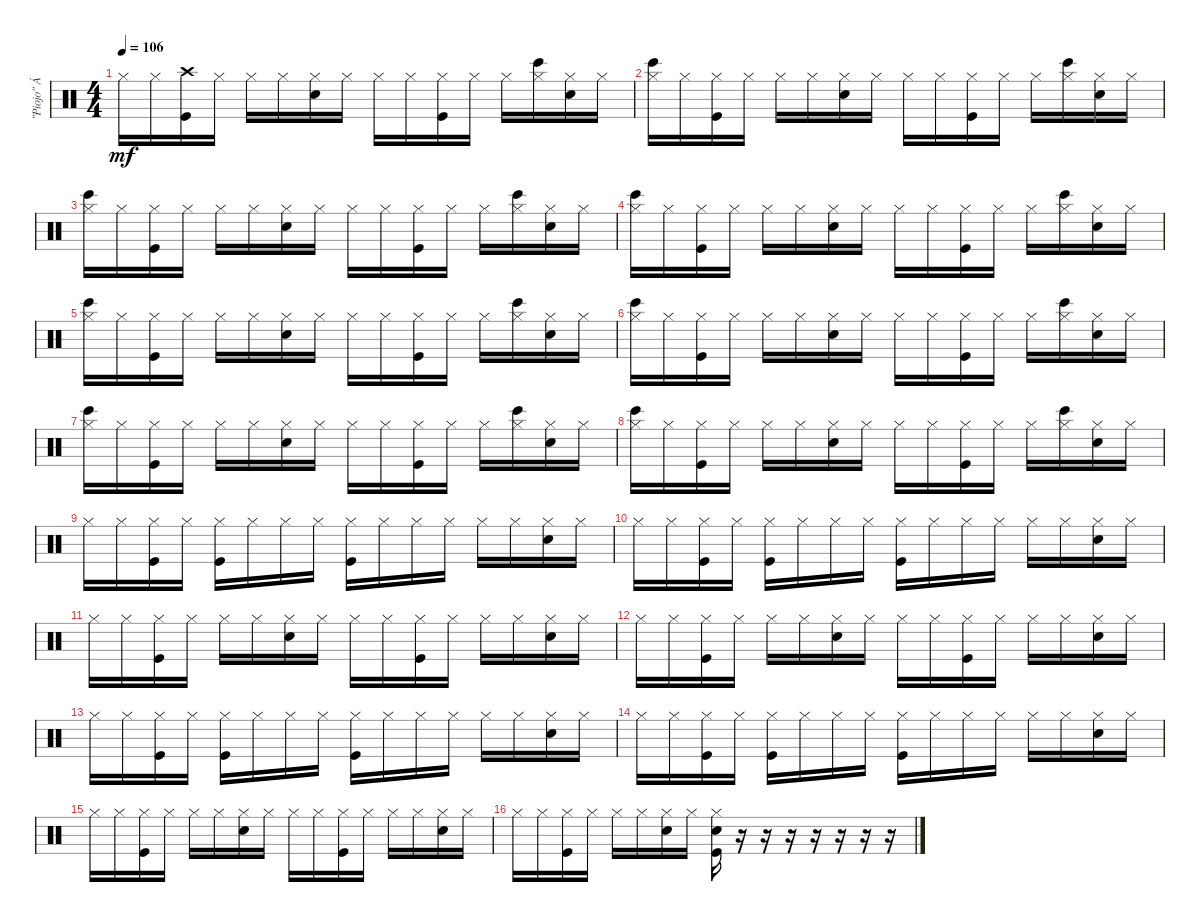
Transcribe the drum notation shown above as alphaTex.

\track (" \"Piojo\" Ávalos" " \"Piojo\" Á") {instrument percussion}
\staff {score}
\articulation defaults
\ts (4 4)
\tempo 106
\clef neutral
\ks c "Hi-Hat (closed)".16{dy mf} "Hi-Hat (closed)".16
("Crash high (hit)" "Kick (hit)").16 "Hi-Hat (closed)".16 "Hi-Hat (closed)".16 "Hi-Hat (closed)".16 ("Hi-Hat (closed)" "Electric Snare (hit)").16 "Hi-Hat (closed)".16 "Hi-Hat (closed)".16 "Hi-Hat (closed)".16 ("Hi-Hat (closed)" "Kick (hit)").16 "Hi-Hat (closed)".16 "Hi-Hat (closed)".16 ("Bongo High (hit)" "Hi-Hat (closed)").16 ("Hi-Hat (closed)" "Electric Snare (hit)").16 "Hi-Hat (closed)".16 |
("Bongo High (hit)" "Hi-Hat (closed)").16 "Hi-Hat (closed)".16 ("Hi-Hat (closed)" "Kick (hit)").16 "Hi-Hat (closed)".16 "Hi-Hat (closed)".16 "Hi-Hat (closed)".16 ("Hi-Hat (closed)" "Electric Snare (hit)").16 "Hi-Hat (closed)".16 "Hi-Hat (closed)".16 "Hi-Hat (closed)".16 ("Hi-Hat (closed)" "Kick (hit)").16 "Hi-Hat (closed)".16 "Hi-Hat (closed)".16 ("Bongo High (hit)" "Hi-Hat (closed)").16 ("Hi-Hat (closed)" "Electric Snare (hit)").16 "Hi-Hat (closed)".16 |
("Bongo High (hit)" "Hi-Hat (closed)").16 "Hi-Hat (closed)".16 ("Hi-Hat (closed)" "Kick (hit)").16 "Hi-Hat (closed)".16 "Hi-Hat (closed)".16 "Hi-Hat (closed)".16 ("Hi-Hat (closed)" "Electric Snare (hit)").16 "Hi-Hat (closed)".16 "Hi-Hat (closed)".16 "Hi-Hat (closed)".16 ("Hi-Hat (closed)" "Kick (hit)").16 "Hi-Hat (closed)".16 "Hi-Hat (closed)".16 ("Bongo High (hit)" "Hi-Hat (closed)").16 ("Hi-Hat (closed)" "Electric Snare (hit)").16 "Hi-Hat (closed)".16 |
("Bongo High (hit)" "Hi-Hat (closed)").16 "Hi-Hat (closed)".16 ("Hi-Hat (closed)" "Kick (hit)").16 "Hi-Hat (closed)".16 "Hi-Hat (closed)".16 "Hi-Hat (closed)".16 ("Hi-Hat (closed)" "Electric Snare (hit)").16 "Hi-Hat (closed)".16 "Hi-Hat (closed)".16 "Hi-Hat (closed)".16 ("Hi-Hat (closed)" "Kick (hit)").16 "Hi-Hat (closed)".16 "Hi-Hat (closed)".16 ("Bongo High (hit)" "Hi-Hat (closed)").16 ("Hi-Hat (closed)" "Electric Snare (hit)").16 "Hi-Hat (closed)".16 |
("Bongo High (hit)" "Hi-Hat (closed)").16 "Hi-Hat (closed)".16 ("Hi-Hat (closed)" "Kick (hit)").16 "Hi-Hat (closed)".16 "Hi-Hat (closed)".16 "Hi-Hat (closed)".16 ("Hi-Hat (closed)" "Electric Snare (hit)").16 "Hi-Hat (closed)".16 "Hi-Hat (closed)".16 "Hi-Hat (closed)".16 ("Hi-Hat (closed)" "Kick (hit)").16 "Hi-Hat (closed)".16 "Hi-Hat (closed)".16 ("Bongo High (hit)" "Hi-Hat (closed)").16 ("Hi-Hat (closed)" "Electric Snare (hit)").16 "Hi-Hat (closed)".16 |
("Bongo High (hit)" "Hi-Hat (closed)").16 "Hi-Hat (closed)".16 ("Hi-Hat (closed)" "Kick (hit)").16 "Hi-Hat (closed)".16 "Hi-Hat (closed)".16 "Hi-Hat (closed)".16 ("Hi-Hat (closed)" "Electric Snare (hit)").16 "Hi-Hat (closed)".16 "Hi-Hat (closed)".16 "Hi-Hat (closed)".16 ("Hi-Hat (closed)" "Kick (hit)").16 "Hi-Hat (closed)".16 "Hi-Hat (closed)".16 ("Bongo High (hit)" "Hi-Hat (closed)").16 ("Hi-Hat (closed)" "Electric Snare (hit)").16 "Hi-Hat (closed)".16 |
("Bongo High (hit)" "Hi-Hat (closed)").16 "Hi-Hat (closed)".16 ("Hi-Hat (closed)" "Kick (hit)").16 "Hi-Hat (closed)".16 "Hi-Hat (closed)".16 "Hi-Hat (closed)".16 ("Hi-Hat (closed)" "Electric Snare (hit)").16 "Hi-Hat (closed)".16 "Hi-Hat (closed)".16 "Hi-Hat (closed)".16 ("Hi-Hat (closed)" "Kick (hit)").16 "Hi-Hat (closed)".16 "Hi-Hat (closed)".16 ("Bongo High (hit)" "Hi-Hat (closed)").16 ("Hi-Hat (closed)" "Electric Snare (hit)").16 "Hi-Hat (closed)".16 |
("Bongo High (hit)" "Hi-Hat (closed)").16 "Hi-Hat (closed)".16 ("Hi-Hat (closed)" "Kick (hit)").16 "Hi-Hat (closed)".16 "Hi-Hat (closed)".16 "Hi-Hat (closed)".16 ("Hi-Hat (closed)" "Electric Snare (hit)").16 "Hi-Hat (closed)".16 "Hi-Hat (closed)".16 "Hi-Hat (closed)".16 ("Hi-Hat (closed)" "Kick (hit)").16 "Hi-Hat (closed)".16 "Hi-Hat (closed)".16 ("Bongo High (hit)" "Hi-Hat (closed)").16 ("Hi-Hat (closed)" "Electric Snare (hit)").16 "Hi-Hat (closed)".16 |
"Hi-Hat (closed)".16 "Hi-Hat (closed)".16 ("Hi-Hat (closed)" "Kick (hit)").16 "Hi-Hat (closed)".16 ("Hi-Hat (closed)" "Kick (hit)").16 "Hi-Hat (closed)".16 "Hi-Hat (closed)".16 "Hi-Hat (closed)".16 ("Hi-Hat (closed)" "Kick (hit)").16 "Hi-Hat (closed)".16 "Hi-Hat (closed)".16 "Hi-Hat (closed)".16 "Hi-Hat (closed)".16 "Hi-Hat (closed)".16 ("Hi-Hat (closed)" "Electric Snare (hit)").16 "Hi-Hat (closed)".16 |
"Hi-Hat (closed)".16 "Hi-Hat (closed)".16 ("Hi-Hat (closed)" "Kick (hit)").16 "Hi-Hat (closed)".16 ("Hi-Hat (closed)" "Kick (hit)").16 "Hi-Hat (closed)".16 "Hi-Hat (closed)".16 "Hi-Hat (closed)".16 ("Hi-Hat (closed)" "Kick (hit)").16 "Hi-Hat (closed)".16 "Hi-Hat (closed)".16 "Hi-Hat (closed)".16 "Hi-Hat (closed)".16 "Hi-Hat (closed)".16 ("Hi-Hat (closed)" "Electric Snare (hit)").16 "Hi-Hat (closed)".16 |
"Hi-Hat (closed)".16 "Hi-Hat (closed)".16 ("Hi-Hat (closed)" "Kick (hit)").16 "Hi-Hat (closed)".16 "Hi-Hat (closed)".16 "Hi-Hat (closed)".16 ("Hi-Hat (closed)" "Electric Snare (hit)").16 "Hi-Hat (closed)".16 "Hi-Hat (closed)".16 "Hi-Hat (closed)".16 ("Hi-Hat (closed)" "Kick (hit)").16 "Hi-Hat (closed)".16 "Hi-Hat (closed)".16 "Hi-Hat (closed)".16 ("Hi-Hat (closed)" "Electric Snare (hit)").16 "Hi-Hat (closed)".16 |
"Hi-Hat (closed)".16 "Hi-Hat (closed)".16 ("Hi-Hat (closed)" "Kick (hit)").16 "Hi-Hat (closed)".16 "Hi-Hat (closed)".16 "Hi-Hat (closed)".16 ("Hi-Hat (closed)" "Electric Snare (hit)").16 "Hi-Hat (closed)".16 "Hi-Hat (closed)".16 "Hi-Hat (closed)".16 ("Hi-Hat (closed)" "Kick (hit)").16 "Hi-Hat (closed)".16 "Hi-Hat (closed)".16 "Hi-Hat (closed)".16 ("Hi-Hat (closed)" "Electric Snare (hit)").16 "Hi-Hat (closed)".16 |
"Hi-Hat (closed)".16 "Hi-Hat (closed)".16 ("Hi-Hat (closed)" "Kick (hit)").16 "Hi-Hat (closed)".16 ("Hi-Hat (closed)" "Kick (hit)").16 "Hi-Hat (closed)".16 "Hi-Hat (closed)".16 "Hi-Hat (closed)".16 ("Hi-Hat (closed)" "Kick (hit)").16 "Hi-Hat (closed)".16 "Hi-Hat (closed)".16 "Hi-Hat (closed)".16 "Hi-Hat (closed)".16 "Hi-Hat (closed)".16 ("Hi-Hat (closed)" "Electric Snare (hit)").16 "Hi-Hat (closed)".16 |
"Hi-Hat (closed)".16 "Hi-Hat (closed)".16 ("Hi-Hat (closed)" "Kick (hit)").16 "Hi-Hat (closed)".16 ("Hi-Hat (closed)" "Kick (hit)").16 "Hi-Hat (closed)".16 "Hi-Hat (closed)".16 "Hi-Hat (closed)".16 ("Hi-Hat (closed)" "Kick (hit)").16 "Hi-Hat (closed)".16 "Hi-Hat (closed)".16 "Hi-Hat (closed)".16 "Hi-Hat (closed)".16 "Hi-Hat (closed)".16 ("Hi-Hat (closed)" "Electric Snare (hit)").16 "Hi-Hat (closed)".16 |
"Hi-Hat (closed)".16 "Hi-Hat (closed)".16 ("Hi-Hat (closed)" "Kick (hit)").16 "Hi-Hat (closed)".16 "Hi-Hat (closed)".16 "Hi-Hat (closed)".16 ("Hi-Hat (closed)" "Electric Snare (hit)").16 "Hi-Hat (closed)".16 "Hi-Hat (closed)".16 "Hi-Hat (closed)".16 ("Hi-Hat (closed)" "Kick (hit)").16 "Hi-Hat (closed)".16 "Hi-Hat (closed)".16 "Hi-Hat (closed)".16 ("Hi-Hat (closed)" "Electric Snare (hit)").16 "Hi-Hat (closed)".16 |
"Hi-Hat (closed)".16 "Hi-Hat (closed)".16 ("Hi-Hat (closed)" "Kick (hit)").16 "Hi-Hat (closed)".16 "Hi-Hat (closed)".16 "Hi-Hat (closed)".16 ("Hi-Hat (closed)" "Electric Snare (hit)").16 "Hi-Hat (closed)".16 ("Hi-Hat (closed)" "Kick (hit)" "Electric Snare (hit)").16 r.16 r.16 r.16 r.16 r.16 r.16 r.16
